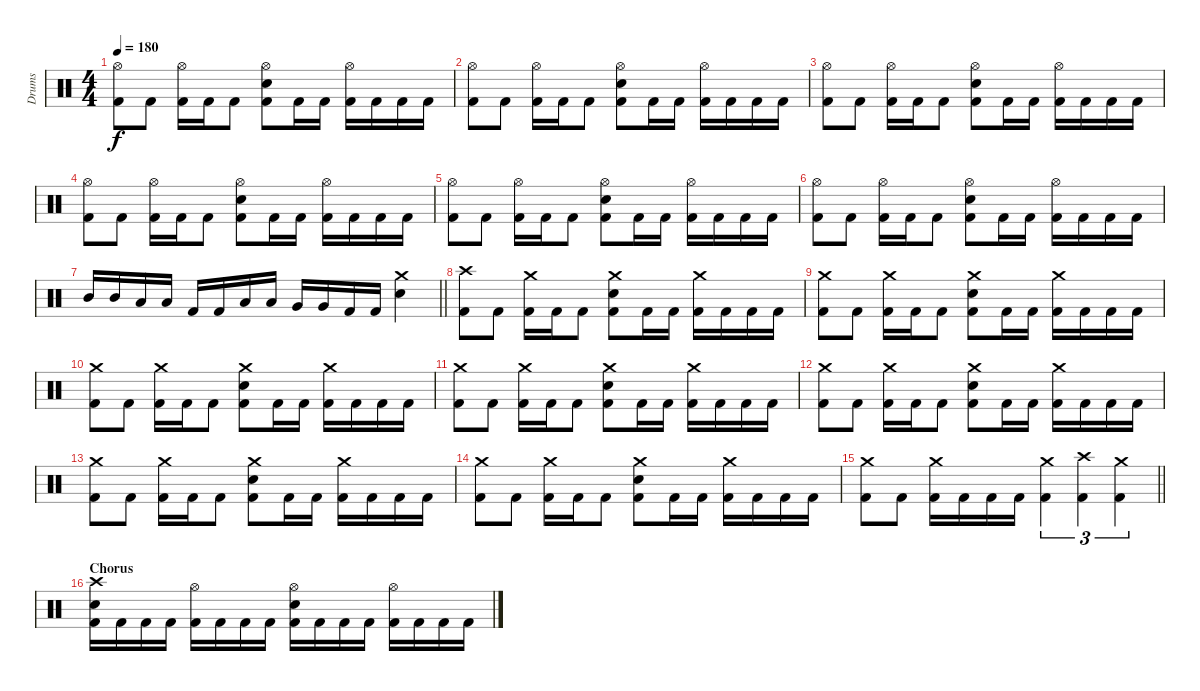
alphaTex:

\track ("Drums" "Drums") {instrument percussion}
\staff {score}
\articulation defaults
\ts (4 4)
\tempo 180
\clef neutral
\ks c
("Hi-Hat (open)" "Kick (hit) 2").8{dy f} "Kick (hit) 2".8 ("Hi-Hat (open)" "Kick (hit) 2").16 "Kick (hit) 2".16 "Kick (hit) 2".8 ("Hi-Hat (open)" "Electric Snare (hit)" "Kick (hit) 2").8 "Kick (hit) 2".16 "Kick (hit) 2".16 ("Hi-Hat (open)" "Kick (hit) 2").16 "Kick (hit) 2".16 "Kick (hit) 2".16 "Kick (hit) 2".16 |
("Hi-Hat (open)" "Kick (hit) 2").8 "Kick (hit) 2".8 ("Hi-Hat (open)" "Kick (hit) 2").16 "Kick (hit) 2".16 "Kick (hit) 2".8 ("Hi-Hat (open)" "Electric Snare (hit)" "Kick (hit) 2").8 "Kick (hit) 2".16 "Kick (hit) 2".16 ("Hi-Hat (open)" "Kick (hit) 2").16 "Kick (hit) 2".16 "Kick (hit) 2".16 "Kick (hit) 2".16 |
("Hi-Hat (open)" "Kick (hit) 2").8 "Kick (hit) 2".8 ("Hi-Hat (open)" "Kick (hit) 2").16 "Kick (hit) 2".16 "Kick (hit) 2".8 ("Hi-Hat (open)" "Electric Snare (hit)" "Kick (hit) 2").8 "Kick (hit) 2".16 "Kick (hit) 2".16 ("Hi-Hat (open)" "Kick (hit) 2").16 "Kick (hit) 2".16 "Kick (hit) 2".16 "Kick (hit) 2".16 |
("Hi-Hat (open)" "Kick (hit) 2").8 "Kick (hit) 2".8 ("Hi-Hat (open)" "Kick (hit) 2").16 "Kick (hit) 2".16 "Kick (hit) 2".8 ("Hi-Hat (open)" "Electric Snare (hit)" "Kick (hit) 2").8 "Kick (hit) 2".16 "Kick (hit) 2".16 ("Hi-Hat (open)" "Kick (hit) 2").16 "Kick (hit) 2".16 "Kick (hit) 2".16 "Kick (hit) 2".16 |
("Hi-Hat (open)" "Kick (hit) 2").8 "Kick (hit) 2".8 ("Hi-Hat (open)" "Kick (hit) 2").16 "Kick (hit) 2".16 "Kick (hit) 2".8 ("Hi-Hat (open)" "Electric Snare (hit)" "Kick (hit) 2").8 "Kick (hit) 2".16 "Kick (hit) 2".16 ("Hi-Hat (open)" "Kick (hit) 2").16 "Kick (hit) 2".16 "Kick (hit) 2".16 "Kick (hit) 2".16 |
("Hi-Hat (open)" "Kick (hit) 2").8 "Kick (hit) 2".8 ("Hi-Hat (open)" "Kick (hit) 2").16 "Kick (hit) 2".16 "Kick (hit) 2".8 ("Hi-Hat (open)" "Electric Snare (hit)" "Kick (hit) 2").8 "Kick (hit) 2".16 "Kick (hit) 2".16 ("Hi-Hat (open)" "Kick (hit) 2").16 "Kick (hit) 2".16 "Kick (hit) 2".16 "Kick (hit) 2".16 |
\barLineRight lightlight "Mid Tom (hit)".16 "Mid Tom (hit)".16 "Low Tom (hit)".16 "Low Tom (hit)".16 "Kick (hit) 2".16 "Kick (hit) 2".16 "Low Tom (hit)".16 "Low Tom (hit)".16 "Very Low Tom (hit)".16 "Very Low Tom (hit)".16 "Kick (hit) 2".16 "Kick (hit) 2".16
("Crash medium (hit)" "Electric Snare (hit)").4 |
("Crash high (hit)" "Kick (hit) 2").8 "Kick (hit) 2".8 ("Crash medium (hit)" "Kick (hit) 2").16 "Kick (hit) 2".16 "Kick (hit) 2".8 ("Crash medium (hit)" "Electric Snare (hit)" "Kick (hit) 2").8 "Kick (hit) 2".16 "Kick (hit) 2".16 ("Crash medium (hit)" "Kick (hit) 2").16 "Kick (hit) 2".16 "Kick (hit) 2".16 "Kick (hit) 2".16 |
("Crash medium (hit)" "Kick (hit) 2").8 "Kick (hit) 2".8 ("Crash medium (hit)" "Kick (hit) 2").16 "Kick (hit) 2".16 "Kick (hit) 2".8 ("Crash medium (hit)" "Electric Snare (hit)" "Kick (hit) 2").8 "Kick (hit) 2".16 "Kick (hit) 2".16 ("Crash medium (hit)" "Kick (hit) 2").16 "Kick (hit) 2".16 "Kick (hit) 2".16 "Kick (hit) 2".16 |
("Crash medium (hit)" "Kick (hit) 2").8 "Kick (hit) 2".8 ("Crash medium (hit)" "Kick (hit) 2").16 "Kick (hit) 2".16 "Kick (hit) 2".8 ("Crash medium (hit)" "Electric Snare (hit)" "Kick (hit) 2").8 "Kick (hit) 2".16 "Kick (hit) 2".16 ("Crash medium (hit)" "Kick (hit) 2").16 "Kick (hit) 2".16 "Kick (hit) 2".16 "Kick (hit) 2".16 |
("Crash medium (hit)" "Kick (hit) 2").8 "Kick (hit) 2".8 ("Crash medium (hit)" "Kick (hit) 2").16 "Kick (hit) 2".16 "Kick (hit) 2".8 ("Crash medium (hit)" "Electric Snare (hit)" "Kick (hit) 2").8 "Kick (hit) 2".16 "Kick (hit) 2".16 ("Crash medium (hit)" "Kick (hit) 2").16 "Kick (hit) 2".16 "Kick (hit) 2".16 "Kick (hit) 2".16 |
("Crash medium (hit)" "Kick (hit) 2").8 "Kick (hit) 2".8 ("Crash medium (hit)" "Kick (hit) 2").16 "Kick (hit) 2".16 "Kick (hit) 2".8 ("Crash medium (hit)" "Electric Snare (hit)" "Kick (hit) 2").8 "Kick (hit) 2".16 "Kick (hit) 2".16 ("Crash medium (hit)" "Kick (hit) 2").16 "Kick (hit) 2".16 "Kick (hit) 2".16 "Kick (hit) 2".16 |
("Crash medium (hit)" "Kick (hit) 2").8 "Kick (hit) 2".8 ("Crash medium (hit)" "Kick (hit) 2").16 "Kick (hit) 2".16 "Kick (hit) 2".8 ("Crash medium (hit)" "Electric Snare (hit)" "Kick (hit) 2").8 "Kick (hit) 2".16 "Kick (hit) 2".16 ("Crash medium (hit)" "Kick (hit) 2").16 "Kick (hit) 2".16 "Kick (hit) 2".16 "Kick (hit) 2".16 |
("Crash medium (hit)" "Kick (hit) 2").8 "Kick (hit) 2".8 ("Crash medium (hit)" "Kick (hit) 2").16 "Kick (hit) 2".16 "Kick (hit) 2".8 ("Crash medium (hit)" "Electric Snare (hit)" "Kick (hit) 2").8 "Kick (hit) 2".16 "Kick (hit) 2".16 ("Crash medium (hit)" "Kick (hit) 2").16 "Kick (hit) 2".16 "Kick (hit) 2".16 "Kick (hit) 2".16 |
\barLineRight lightlight
("Crash medium (hit)" "Kick (hit) 2").8 "Kick (hit) 2".8 ("Crash medium (hit)" "Kick (hit) 2").16 "Kick (hit) 2".16 "Kick (hit) 2".16 "Kick (hit) 2".16 ("Crash medium (hit)" "Kick (hit) 2").4{tu (3 2)} ("Crash high (hit)" "Kick (hit) 2").4{tu (3 2)} ("Crash medium (hit)" "Kick (hit) 2").4{tu (3 2)} |
\section ("" "Chorus")
("Crash high (hit)" "Electric Snare (hit)" "Kick (hit) 2").16 "Kick (hit) 2".16 "Kick (hit) 2".16 "Kick (hit) 2".16 ("Hi-Hat (open)" "Kick (hit) 2").16 "Kick (hit) 2".16 "Kick (hit) 2".16 "Kick (hit) 2".16 ("Hi-Hat (open)" "Electric Snare (hit)" "Kick (hit) 2").16 "Kick (hit) 2".16 "Kick (hit) 2".16 "Kick (hit) 2".16 ("Hi-Hat (open)" "Kick (hit) 2").16 "Kick (hit) 2".16 "Kick (hit) 2".16 "Kick (hit) 2".16
